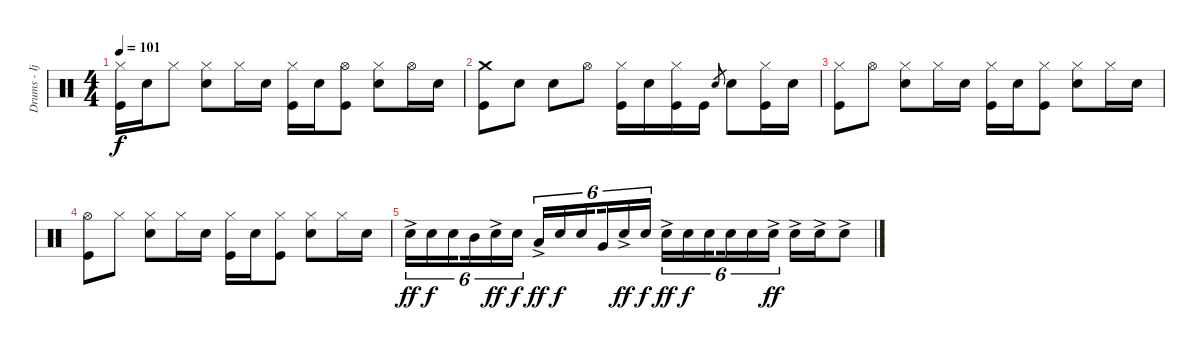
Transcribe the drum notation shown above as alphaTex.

\track ("Drums - Ijichi" "Drums - Ij") {instrument percussion}
\staff {score}
\articulation defaults
\ts (4 4)
\tempo 101
\clef neutral
\ks c
("Hi-Hat (closed)" "Kick (hit)").16{dy f} "Electric Snare (hit)".16 "Hi-Hat (closed)".8 ("Hi-Hat (closed)" "Electric Snare (hit)").8 "Hi-Hat (closed)".16 "Electric Snare (hit)".16 ("Hi-Hat (closed)" "Kick (hit)").16 "Electric Snare (hit)".16 ("Hi-Hat (open)" "Kick (hit)").8 ("Hi-Hat (closed)" "Electric Snare (hit)").8 "Hi-Hat (open)".16 "Electric Snare (hit)".16 |
("Crash medium (hit)" "Kick (hit)").8 "Electric Snare (hit)".8 "Electric Snare (hit)".8 "Hi-Hat (open)".8 ("Hi-Hat (closed)" "Kick (hit)").16 "Electric Snare (hit)".16 ("Hi-Hat (closed)" "Kick (hit)").16 "Kick (hit)".16 "Electric Snare (hit)".8{gr} "Electric Snare (hit)".8 ("Hi-Hat (closed)" "Kick (hit)").16 "Electric Snare (hit)".16 |
("Hi-Hat (closed)" "Kick (hit)").8 "Hi-Hat (open)".8 ("Hi-Hat (closed)" "Electric Snare (hit)").8 "Hi-Hat (closed)".16 "Electric Snare (hit)".16 ("Hi-Hat (closed)" "Kick (hit)").16 "Electric Snare (hit)".16 ("Hi-Hat (closed)" "Kick (hit)").8 ("Hi-Hat (closed)" "Electric Snare (hit)").8 "Hi-Hat (closed)".16 "Electric Snare (hit)".16 |
("Hi-Hat (open)" "Kick (hit)").8 "Hi-Hat (closed)".8 ("Hi-Hat (closed)" "Electric Snare (hit)").8 "Hi-Hat (closed)".16 "Electric Snare (hit)".16 ("Hi-Hat (closed)" "Kick (hit)").16 "Electric Snare (hit)".16 ("Hi-Hat (closed)" "Kick (hit)").8 ("Hi-Hat (closed)" "Electric Snare (hit)").8 "Hi-Hat (closed)".16 "Electric Snare (hit)".16 |
"Electric Snare (hit)"{ac}.16{tu (6 4) dy ff} "Electric Snare (hit)".16{tu (6 4) dy f} "Electric Snare (hit)".16{tu (6 4) beam splitsecondary} "Mid Tom (hit)".16{tu (6 4)} "Electric Snare (hit)"{ac}.16{tu (6 4) dy ff} "Electric Snare (hit)".16{tu (6 4) dy f} "Low Tom (hit)"{ac}.16{tu (6 4) dy ff} "Electric Snare (hit)".16{tu (6 4) dy f} "Electric Snare (hit)".16{tu (6 4) beam splitsecondary} "Very Low Tom (hit)".16{tu (6 4)} "Electric Snare (hit)"{ac}.16{tu (6 4) dy ff} "Electric Snare (hit)".16{tu (6 4) dy f} "Electric Snare (hit)"{ac}.16{tu (6 4) dy ff} "Electric Snare (hit)".16{tu (6 4) dy f} "Electric Snare (hit)".16{tu (6 4) beam splitsecondary} "Electric Snare (hit)".16{tu (6 4)} "Electric Snare (hit)".16{tu (6 4)} "Electric Snare (hit)"{ac}.16{tu (6 4) dy ff} "Electric Snare (hit)"{ac}.16 "Electric Snare (hit)"{ac}.16 "Electric Snare (hit)"{ac}.8
